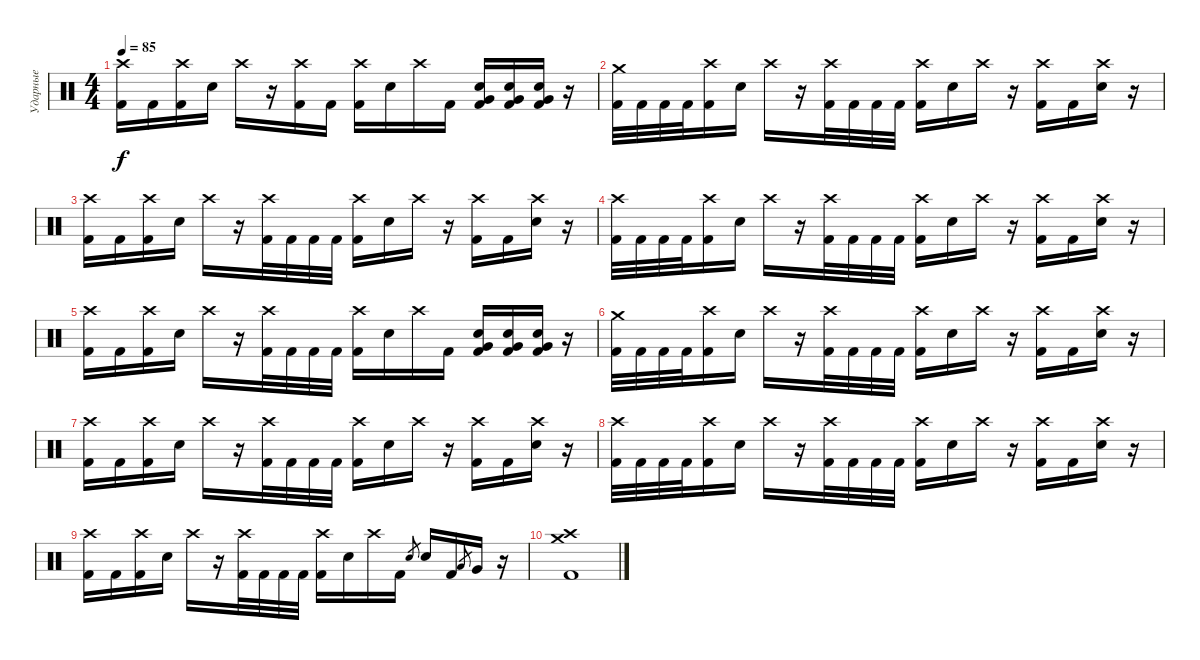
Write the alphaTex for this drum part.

\track ("Ударные" "Ударные") {instrument percussion}
\staff {score}
\articulation defaults
\ts (4 4)
\tempo 85
\clef neutral
\ks c
("Crash high (hit)" "Kick (hit) 2").16{dy f} "Kick (hit) 2".16 ("Crash high (hit)" "Kick (hit) 2").16 "Electric Snare (hit)".16 "Crash high (hit)".16 r.16 ("Crash high (hit)" "Kick (hit) 2").16 "Kick (hit) 2".16 ("Crash high (hit)" "Kick (hit) 2").16 "Electric Snare (hit)".16 "Crash high (hit)".16 "Kick (hit) 2".16 ("Very Low Tom (hit)" "Electric Snare (hit)" "Kick (hit) 2").16 ("Very Low Tom (hit)" "Electric Snare (hit)" "Kick (hit) 2").16 ("Very Low Tom (hit)" "Electric Snare (hit)" "Kick (hit) 2").16 r.16 |
("Crash medium (hit)" "Kick (hit) 2").32 "Kick (hit) 2".32 "Kick (hit) 2".32 "Kick (hit) 2".32 ("Crash high (hit)" "Kick (hit) 2").16 "Electric Snare (hit)".16 "Crash high (hit)".16 r.16 ("Crash high (hit)" "Kick (hit) 2").32 "Kick (hit) 2".32 "Kick (hit) 2".32 "Kick (hit) 2".32 ("Crash high (hit)" "Kick (hit) 2").16 "Electric Snare (hit)".16 "Crash high (hit)".16 r.16 ("Crash high (hit)" "Kick (hit) 2").16 "Kick (hit) 2".16 ("Crash high (hit)" "Electric Snare (hit)").16 r.16 |
("Crash high (hit)" "Kick (hit) 2").16 "Kick (hit) 2".16 ("Crash high (hit)" "Kick (hit) 2").16 "Electric Snare (hit)".16 "Crash high (hit)".16 r.16 ("Crash high (hit)" "Kick (hit) 2").32 "Kick (hit) 2".32 "Kick (hit) 2".32 "Kick (hit) 2".32 ("Crash high (hit)" "Kick (hit) 2").16 "Electric Snare (hit)".16 "Crash high (hit)".16 r.16 ("Crash high (hit)" "Kick (hit) 2").16 "Kick (hit) 2".16 ("Crash high (hit)" "Electric Snare (hit)").16 r.16 |
("Crash high (hit)" "Kick (hit) 2").32 "Kick (hit) 2".32 "Kick (hit) 2".32 "Kick (hit) 2".32 ("Crash high (hit)" "Kick (hit) 2").16 "Electric Snare (hit)".16 "Crash high (hit)".16 r.16 ("Crash high (hit)" "Kick (hit) 2").32 "Kick (hit) 2".32 "Kick (hit) 2".32 "Kick (hit) 2".32 ("Crash high (hit)" "Kick (hit) 2").16 "Electric Snare (hit)".16 "Crash high (hit)".16 r.16 ("Crash high (hit)" "Kick (hit) 2").16 "Kick (hit) 2".16 ("Crash high (hit)" "Electric Snare (hit)").16 r.16 |
("Crash high (hit)" "Kick (hit) 2").16 "Kick (hit) 2".16 ("Crash high (hit)" "Kick (hit) 2").16 "Electric Snare (hit)".16 "Crash high (hit)".16 r.16 ("Crash high (hit)" "Kick (hit) 2").32 "Kick (hit) 2".32 "Kick (hit) 2".32 "Kick (hit) 2".32 ("Crash high (hit)" "Kick (hit) 2").16 "Electric Snare (hit)".16 "Crash high (hit)".16 "Kick (hit) 2".16 ("Very Low Tom (hit)" "Electric Snare (hit)" "Kick (hit) 2").16 ("Very Low Tom (hit)" "Electric Snare (hit)" "Kick (hit) 2").16 ("Very Low Tom (hit)" "Electric Snare (hit)" "Kick (hit) 2").16 r.16 |
("Crash medium (hit)" "Kick (hit) 2").32 "Kick (hit) 2".32 "Kick (hit) 2".32 "Kick (hit) 2".32 ("Crash high (hit)" "Kick (hit) 2").16 "Electric Snare (hit)".16 "Crash high (hit)".16 r.16 ("Crash high (hit)" "Kick (hit) 2").32 "Kick (hit) 2".32 "Kick (hit) 2".32 "Kick (hit) 2".32 ("Crash high (hit)" "Kick (hit) 2").16 "Electric Snare (hit)".16 "Crash high (hit)".16 r.16 ("Crash high (hit)" "Kick (hit) 2").16 "Kick (hit) 2".16 ("Crash high (hit)" "Electric Snare (hit)").16 r.16 |
("Crash high (hit)" "Kick (hit) 2").16 "Kick (hit) 2".16 ("Crash high (hit)" "Kick (hit) 2").16 "Electric Snare (hit)".16 "Crash high (hit)".16 r.16 ("Crash high (hit)" "Kick (hit) 2").32 "Kick (hit) 2".32 "Kick (hit) 2".32 "Kick (hit) 2".32 ("Crash high (hit)" "Kick (hit) 2").16 "Electric Snare (hit)".16 "Crash high (hit)".16 r.16 ("Crash high (hit)" "Kick (hit) 2").16 "Kick (hit) 2".16 ("Crash high (hit)" "Electric Snare (hit)").16 r.16 |
("Crash high (hit)" "Kick (hit) 2").32 "Kick (hit) 2".32 "Kick (hit) 2".32 "Kick (hit) 2".32 ("Crash high (hit)" "Kick (hit) 2").16 "Electric Snare (hit)".16 "Crash high (hit)".16 r.16 ("Crash high (hit)" "Kick (hit) 2").32 "Kick (hit) 2".32 "Kick (hit) 2".32 "Kick (hit) 2".32 ("Crash high (hit)" "Kick (hit) 2").16 "Electric Snare (hit)".16 "Crash high (hit)".16 r.16 ("Crash high (hit)" "Kick (hit) 2").16 "Kick (hit) 2".16 ("Crash high (hit)" "Electric Snare (hit)").16 r.16 |
("Crash high (hit)" "Kick (hit) 2").16 "Kick (hit) 2".16 ("Crash high (hit)" "Kick (hit) 2").16 "Electric Snare (hit)".16 "Crash high (hit)".16 r.16 ("Crash high (hit)" "Kick (hit) 2").32 "Kick (hit) 2".32 "Kick (hit) 2".32 "Kick (hit) 2".32 ("Crash high (hit)" "Kick (hit) 2").16 "Electric Snare (hit)".16 "Crash high (hit)".16 "Kick (hit) 2".16 "Electric Snare (hit)".8{gr} "Electric Snare (hit)".16 "Kick (hit) 2".16 "Low Tom (hit)".8{gr} "Very Low Tom (hit)".16 r.16 |
("Crash medium (hit)" "Crash high (hit)" "Kick (hit) 2").1
